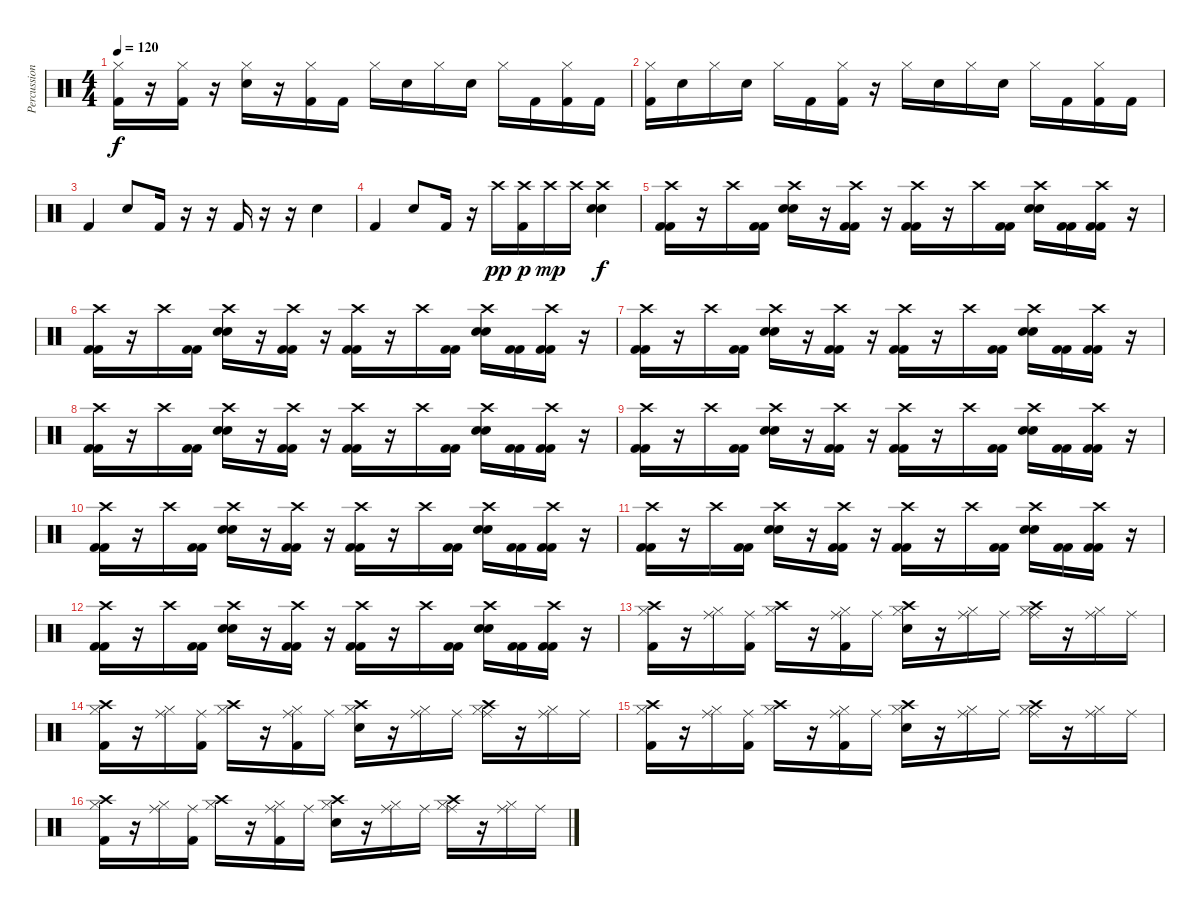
\track ("Percussions" "Percussion") {instrument percussion}
\staff {score}
\articulation defaults
\ts (4 4)
\tempo 120
\clef neutral
\ks c
("Hi-Hat (closed)" "Kick (hit) 2").16{dy f} r.16 ("Hi-Hat (closed)" "Kick (hit) 2").16 r.16 ("Hi-Hat (closed)" "Electric Snare (hit)").16 r.16 ("Hi-Hat (closed)" "Kick (hit) 2").16 "Kick (hit) 2".16 "Hi-Hat (closed)".16 "Electric Snare (hit)".16 "Hi-Hat (closed)".16 "Electric Snare (hit)".16 "Hi-Hat (closed)".16 "Kick (hit) 2".16 ("Hi-Hat (closed)" "Kick (hit) 2").16 "Kick (hit) 2".16 |
("Hi-Hat (closed)" "Kick (hit) 2").16 "Electric Snare (hit)".16 "Hi-Hat (closed)".16 "Electric Snare (hit)".16 "Hi-Hat (closed)".16 "Kick (hit) 2".16 ("Hi-Hat (closed)" "Kick (hit) 2").16 r.16 "Hi-Hat (closed)".16 "Electric Snare (hit)".16 "Hi-Hat (closed)".16 "Electric Snare (hit)".16 "Hi-Hat (closed)".16 "Kick (hit) 2".16 ("Hi-Hat (closed)" "Kick (hit) 2").16 "Kick (hit) 2".16 |
"Kick (hit) 2".4 "Electric Snare (hit)".8 "Kick (hit) 2".16 r.16 r.16 "Kick (hit) 2".16 r.16 r.16 "Electric Snare (hit)".4 |
"Kick (hit) 2".4 "Electric Snare (hit)".8 "Kick (hit) 2".16 r.16 "Crash high (hit)".16{dy pp} ("Crash high (hit)" "Kick (hit) 2").16{dy p} "Crash high (hit)".16{dy mp} "Crash high (hit)".16 ("Crash high (hit)" "Electric Snare (hit)" "Electric Snare (hit)").4{dy f} |
("Crash high (hit)" "Kick (hit) 2" "Kick (hit) 2").16 r.16 "Crash high (hit)".16 ("Kick (hit) 2" "Kick (hit) 2").16 ("Crash high (hit)" "Electric Snare (hit)" "Electric Snare (hit)").16 r.16 ("Crash high (hit)" "Kick (hit) 2" "Kick (hit) 2").16 r.16 ("Crash high (hit)" "Kick (hit) 2" "Kick (hit) 2").16 r.16 "Crash high (hit)".16 ("Kick (hit) 2" "Kick (hit) 2").16 ("Crash high (hit)" "Electric Snare (hit)" "Electric Snare (hit)").16 ("Kick (hit) 2" "Kick (hit) 2").16 ("Crash high (hit)" "Kick (hit) 2" "Kick (hit) 2").16 r.16 |
("Crash high (hit)" "Kick (hit) 2" "Kick (hit) 2").16 r.16 "Crash high (hit)".16 ("Kick (hit) 2" "Kick (hit) 2").16 ("Crash high (hit)" "Electric Snare (hit)" "Electric Snare (hit)").16 r.16 ("Crash high (hit)" "Kick (hit) 2" "Kick (hit) 2").16 r.16 ("Crash high (hit)" "Kick (hit) 2" "Kick (hit) 2").16 r.16 "Crash high (hit)".16 ("Kick (hit) 2" "Kick (hit) 2").16 ("Crash high (hit)" "Electric Snare (hit)" "Electric Snare (hit)").16 ("Kick (hit) 2" "Kick (hit) 2").16 ("Crash high (hit)" "Kick (hit) 2" "Kick (hit) 2").16 r.16 |
("Crash high (hit)" "Kick (hit) 2" "Kick (hit) 2").16 r.16 "Crash high (hit)".16 ("Kick (hit) 2" "Kick (hit) 2").16 ("Crash high (hit)" "Electric Snare (hit)" "Electric Snare (hit)").16 r.16 ("Crash high (hit)" "Kick (hit) 2" "Kick (hit) 2").16 r.16 ("Crash high (hit)" "Kick (hit) 2" "Kick (hit) 2").16 r.16 "Crash high (hit)".16 ("Kick (hit) 2" "Kick (hit) 2").16 ("Crash high (hit)" "Electric Snare (hit)" "Electric Snare (hit)").16 ("Kick (hit) 2" "Kick (hit) 2").16 ("Crash high (hit)" "Kick (hit) 2" "Kick (hit) 2").16 r.16 |
("Crash high (hit)" "Kick (hit) 2" "Kick (hit) 2").16 r.16 "Crash high (hit)".16 ("Kick (hit) 2" "Kick (hit) 2").16 ("Crash high (hit)" "Electric Snare (hit)" "Electric Snare (hit)").16 r.16 ("Crash high (hit)" "Kick (hit) 2" "Kick (hit) 2").16 r.16 ("Crash high (hit)" "Kick (hit) 2" "Kick (hit) 2").16 r.16 "Crash high (hit)".16 ("Kick (hit) 2" "Kick (hit) 2").16 ("Crash high (hit)" "Electric Snare (hit)" "Electric Snare (hit)").16 ("Kick (hit) 2" "Kick (hit) 2").16 ("Crash high (hit)" "Kick (hit) 2" "Kick (hit) 2").16 r.16 |
("Crash high (hit)" "Kick (hit) 2" "Kick (hit) 2").16 r.16 "Crash high (hit)".16 ("Kick (hit) 2" "Kick (hit) 2").16 ("Crash high (hit)" "Electric Snare (hit)" "Electric Snare (hit)").16 r.16 ("Crash high (hit)" "Kick (hit) 2" "Kick (hit) 2").16 r.16 ("Crash high (hit)" "Kick (hit) 2" "Kick (hit) 2").16 r.16 "Crash high (hit)".16 ("Kick (hit) 2" "Kick (hit) 2").16 ("Crash high (hit)" "Electric Snare (hit)" "Electric Snare (hit)").16 ("Kick (hit) 2" "Kick (hit) 2").16 ("Crash high (hit)" "Kick (hit) 2" "Kick (hit) 2").16 r.16 |
("Crash high (hit)" "Kick (hit) 2" "Kick (hit) 2").16 r.16 "Crash high (hit)".16 ("Kick (hit) 2" "Kick (hit) 2").16 ("Crash high (hit)" "Electric Snare (hit)" "Electric Snare (hit)").16 r.16 ("Crash high (hit)" "Kick (hit) 2" "Kick (hit) 2").16 r.16 ("Crash high (hit)" "Kick (hit) 2" "Kick (hit) 2").16 r.16 "Crash high (hit)".16 ("Kick (hit) 2" "Kick (hit) 2").16 ("Crash high (hit)" "Electric Snare (hit)" "Electric Snare (hit)").16 ("Kick (hit) 2" "Kick (hit) 2").16 ("Crash high (hit)" "Kick (hit) 2" "Kick (hit) 2").16 r.16 |
("Crash high (hit)" "Kick (hit) 2" "Kick (hit) 2").16 r.16 "Crash high (hit)".16 ("Kick (hit) 2" "Kick (hit) 2").16 ("Crash high (hit)" "Electric Snare (hit)" "Electric Snare (hit)").16 r.16 ("Crash high (hit)" "Kick (hit) 2" "Kick (hit) 2").16 r.16 ("Crash high (hit)" "Kick (hit) 2" "Kick (hit) 2").16 r.16 "Crash high (hit)".16 ("Kick (hit) 2" "Kick (hit) 2").16 ("Crash high (hit)" "Electric Snare (hit)" "Electric Snare (hit)").16 ("Kick (hit) 2" "Kick (hit) 2").16 ("Crash high (hit)" "Kick (hit) 2" "Kick (hit) 2").16 r.16 |
("Crash high (hit)" "Kick (hit) 2" "Kick (hit) 2").16 r.16 "Crash high (hit)".16 ("Kick (hit) 2" "Kick (hit) 2").16 ("Crash high (hit)" "Electric Snare (hit)" "Electric Snare (hit)").16 r.16 ("Crash high (hit)" "Kick (hit) 2" "Kick (hit) 2").16 r.16 ("Crash high (hit)" "Kick (hit) 2" "Kick (hit) 2").16 r.16 "Crash high (hit)".16 ("Kick (hit) 2" "Kick (hit) 2").16 ("Crash high (hit)" "Electric Snare (hit)" "Electric Snare (hit)").16 ("Kick (hit) 2" "Kick (hit) 2").16 ("Crash high (hit)" "Kick (hit) 2" "Kick (hit) 2").16 r.16 |
("Hi-Hat (closed)" "Crash high (hit)" "Kick (hit) 2").16 r.16 ("Hi-Hat (closed)" "Ride (middle)").16 ("Ride (middle)" "Kick (hit) 2").16 ("Hi-Hat (closed)" "Crash high (hit)").16 r.16 ("Hi-Hat (closed)" "Ride (middle)" "Kick (hit) 2").16 "Ride (middle)".16 ("Hi-Hat (closed)" "Crash high (hit)" "Electric Snare (hit)").16 r.16 ("Hi-Hat (closed)" "Ride (middle)").16 "Ride (middle)".16 ("Hi-Hat (closed)" "Crash high (hit)" "Ride (middle)").16 r.16 ("Hi-Hat (closed)" "Ride (middle)").16 "Ride (middle)".16 |
("Hi-Hat (closed)" "Crash high (hit)" "Kick (hit) 2").16 r.16 ("Hi-Hat (closed)" "Ride (middle)").16 ("Ride (middle)" "Kick (hit) 2").16 ("Hi-Hat (closed)" "Crash high (hit)").16 r.16 ("Hi-Hat (closed)" "Ride (middle)" "Kick (hit) 2").16 "Ride (middle)".16 ("Hi-Hat (closed)" "Crash high (hit)" "Electric Snare (hit)").16 r.16 ("Hi-Hat (closed)" "Ride (middle)").16 "Ride (middle)".16 ("Hi-Hat (closed)" "Crash high (hit)" "Ride (middle)").16 r.16 ("Hi-Hat (closed)" "Ride (middle)").16 "Ride (middle)".16 |
("Hi-Hat (closed)" "Crash high (hit)" "Kick (hit) 2").16 r.16 ("Hi-Hat (closed)" "Ride (middle)").16 ("Ride (middle)" "Kick (hit) 2").16 ("Hi-Hat (closed)" "Crash high (hit)").16 r.16 ("Hi-Hat (closed)" "Ride (middle)" "Kick (hit) 2").16 "Ride (middle)".16 ("Hi-Hat (closed)" "Crash high (hit)" "Electric Snare (hit)").16 r.16 ("Hi-Hat (closed)" "Ride (middle)").16 "Ride (middle)".16 ("Hi-Hat (closed)" "Crash high (hit)" "Ride (middle)").16 r.16 ("Hi-Hat (closed)" "Ride (middle)").16 "Ride (middle)".16 |
("Hi-Hat (closed)" "Crash high (hit)" "Kick (hit) 2").16 r.16 ("Hi-Hat (closed)" "Ride (middle)").16 ("Ride (middle)" "Kick (hit) 2").16 ("Hi-Hat (closed)" "Crash high (hit)").16 r.16 ("Hi-Hat (closed)" "Ride (middle)" "Kick (hit) 2").16 "Ride (middle)".16 ("Hi-Hat (closed)" "Crash high (hit)" "Electric Snare (hit)").16 r.16 ("Hi-Hat (closed)" "Ride (middle)").16 "Ride (middle)".16 ("Hi-Hat (closed)" "Crash high (hit)" "Ride (middle)").16 r.16 ("Hi-Hat (closed)" "Ride (middle)").16 "Ride (middle)".16
